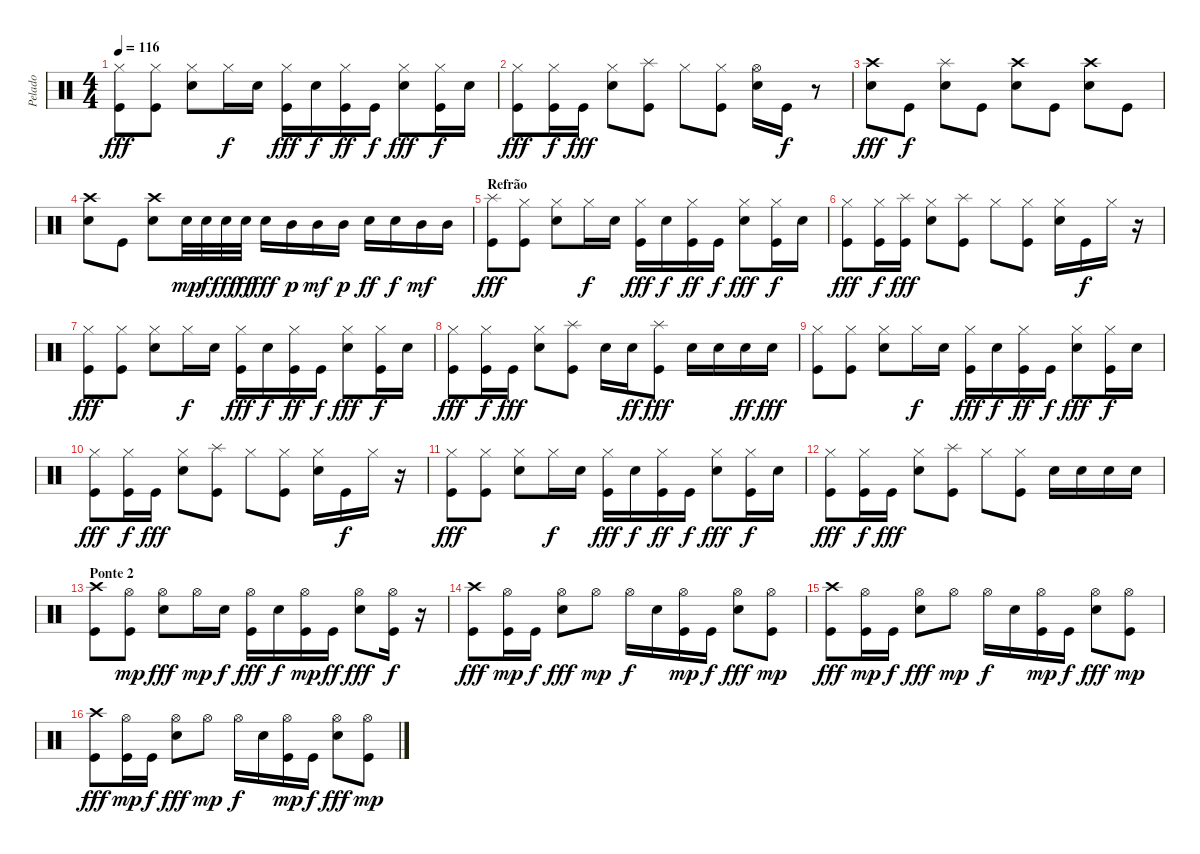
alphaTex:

\track ("Pelado" "Pelado") {instrument percussion}
\staff {score}
\articulation defaults
\ts (4 4)
\tempo 116
\clef neutral
\ks c
("Kick (hit)" "Hi-Hat (closed)").8{dy fff} ("Kick (hit)" "Hi-Hat (closed)").8 ("Electric Snare (hit)" "Hi-Hat (closed)").8 "Hi-Hat (closed)".16{dy f} "Electric Snare (hit)".16 ("Kick (hit)" "Hi-Hat (closed)").16{dy fff} "Electric Snare (hit)".16{dy f} ("Kick (hit)" "Hi-Hat (closed)").16{dy ff} "Kick (hit)".16{dy f} ("Electric Snare (hit)" "Hi-Hat (closed)").8{dy fff} ("Kick (hit)" "Hi-Hat (closed)").16{dy f} "Electric Snare (hit)".16 |
("Kick (hit)" "Hi-Hat (closed)").8{dy fff} ("Kick (hit)" "Hi-Hat (closed)").16{dy f} "Kick (hit)".16{dy fff} ("Electric Snare (hit)" "Hi-Hat (closed)").8 ("Kick (hit)" "Splash (hit)").8 "Hi-Hat (closed)".8 ("Kick (hit)" "Hi-Hat (closed)").8 ("Electric Snare (hit)" "Hi-Hat (open)").16 "Kick (hit)".16{dy f} r.8 |
("Electric Snare (hit)" "Crash high (hit)").8{dy fff} "Kick (hit)".8{dy f} ("Electric Snare (hit)" "Splash (hit)").8 "Kick (hit)".8 ("Electric Snare (hit)" "Crash high (hit)").8 "Kick (hit)".8 ("Electric Snare (hit)" "Crash high (hit)").8 "Kick (hit)".8 |
("Electric Snare (hit)" "Crash high (hit)").8 "Kick (hit)".8 ("Electric Snare (hit)" "Crash high (hit)").8 "Electric Snare (hit)".32{dy mp} "Electric Snare (hit)".32{dy f} "Electric Snare (hit)".32{dy fff} "Electric Snare (hit)".32{dy ff} "Electric Snare (hit)".16{dy fff} "Mid Tom (hit)".16{dy p} "Mid Tom (hit)".16{dy mf} "Mid Tom (hit)".16{dy p} "Electric Snare (hit)".16{dy ff} "Electric Snare (hit)".16{dy f} "Mid Tom (hit)".16{dy mf} "Mid Tom (hit)".16 |
\section ("" "Refrão")
("Kick (hit)" "Splash (hit)").8{dy fff} ("Kick (hit)" "Hi-Hat (closed)").8 ("Electric Snare (hit)" "Hi-Hat (closed)").8 "Hi-Hat (closed)".16{dy f} "Electric Snare (hit)".16 ("Kick (hit)" "Hi-Hat (closed)").16{dy fff} "Electric Snare (hit)".16{dy f} ("Kick (hit)" "Hi-Hat (closed)").16{dy ff} "Kick (hit)".16{dy f} ("Electric Snare (hit)" "Hi-Hat (closed)").8{dy fff} ("Kick (hit)" "Hi-Hat (closed)").16{dy f} "Electric Snare (hit)".16 |
("Kick (hit)" "Hi-Hat (closed)").8{dy fff} ("Kick (hit)" "Hi-Hat (closed)").16{dy f} ("Kick (hit)" "Splash (hit)").16{dy fff} ("Electric Snare (hit)" "Hi-Hat (closed)").8 ("Kick (hit)" "Splash (hit)").8 "Hi-Hat (closed)".8 ("Kick (hit)" "Hi-Hat (closed)").8 ("Electric Snare (hit)" "Hi-Hat (closed)").16 "Kick (hit)".16{dy f} "Hi-Hat (closed)".16 r.16 |
("Kick (hit)" "Hi-Hat (closed)").8{dy fff} ("Kick (hit)" "Hi-Hat (closed)").8 ("Electric Snare (hit)" "Hi-Hat (closed)").8 "Hi-Hat (closed)".16{dy f} "Electric Snare (hit)".16 ("Kick (hit)" "Hi-Hat (closed)").16{dy fff} "Electric Snare (hit)".16{dy f} ("Kick (hit)" "Hi-Hat (closed)").16{dy ff} "Kick (hit)".16{dy f} ("Electric Snare (hit)" "Hi-Hat (closed)").8{dy fff} ("Kick (hit)" "Hi-Hat (closed)").16{dy f} "Electric Snare (hit)".16 |
("Kick (hit)" "Hi-Hat (closed)").8{dy fff} ("Kick (hit)" "Hi-Hat (closed)").16{dy f} "Kick (hit)".16{dy fff} ("Electric Snare (hit)" "Hi-Hat (closed)").8 ("Kick (hit)" "Splash (hit)").8 "Electric Snare (hit)".16 "Electric Snare (hit)".16{dy ff} ("Kick (hit)" "Splash (hit)").8{dy fff} "Electric Snare (hit)".16 "Electric Snare (hit)".16 "Electric Snare (hit)".16{dy ff} "Electric Snare (hit)".16{dy fff} |
("Kick (hit)" "Hi-Hat (closed)").8 ("Kick (hit)" "Hi-Hat (closed)").8 ("Electric Snare (hit)" "Hi-Hat (closed)").8 "Hi-Hat (closed)".16{dy f} "Electric Snare (hit)".16 ("Kick (hit)" "Hi-Hat (closed)").16{dy fff} "Electric Snare (hit)".16{dy f} ("Kick (hit)" "Hi-Hat (closed)").16{dy ff} "Kick (hit)".16{dy f} ("Electric Snare (hit)" "Hi-Hat (closed)").8{dy fff} ("Kick (hit)" "Hi-Hat (closed)").16{dy f} "Electric Snare (hit)".16 |
("Kick (hit)" "Hi-Hat (closed)").8{dy fff} ("Kick (hit)" "Hi-Hat (closed)").16{dy f} "Kick (hit)".16{dy fff} ("Electric Snare (hit)" "Hi-Hat (closed)").8 ("Kick (hit)" "Splash (hit)").8 "Hi-Hat (closed)".8 ("Kick (hit)" "Hi-Hat (closed)").8 ("Electric Snare (hit)" "Hi-Hat (closed)").16 "Kick (hit)".16{dy f} "Hi-Hat (closed)".16 r.16 |
("Kick (hit)" "Hi-Hat (closed)").8{dy fff} ("Kick (hit)" "Hi-Hat (closed)").8 ("Electric Snare (hit)" "Hi-Hat (closed)").8 "Hi-Hat (closed)".16{dy f} "Electric Snare (hit)".16 ("Kick (hit)" "Hi-Hat (closed)").16{dy fff} "Electric Snare (hit)".16{dy f} ("Kick (hit)" "Hi-Hat (closed)").16{dy ff} "Kick (hit)".16{dy f} ("Electric Snare (hit)" "Hi-Hat (closed)").8{dy fff} ("Kick (hit)" "Hi-Hat (closed)").16{dy f} "Electric Snare (hit)".16 |
("Kick (hit)" "Hi-Hat (closed)").8{dy fff} ("Kick (hit)" "Hi-Hat (closed)").16{dy f} "Kick (hit)".16{dy fff} ("Electric Snare (hit)" "Hi-Hat (closed)").8 ("Kick (hit)" "Splash (hit)").8 "Hi-Hat (closed)".8 ("Kick (hit)" "Hi-Hat (closed)").8 "Electric Snare (hit)".16 "Electric Snare (hit)".16 "Electric Snare (hit)".16 "Electric Snare (hit)".16 |
\section ("" "Ponte 2")
("Kick (hit)" "Crash high (hit)").8 ("Kick (hit)" "Hi-Hat (open)").8{dy mp} ("Electric Snare (hit)" "Hi-Hat (open)").8{dy fff} "Hi-Hat (open)".16{dy mp} "Electric Snare (hit)".16{dy f} ("Kick (hit)" "Hi-Hat (open)").16{dy fff} "Electric Snare (hit)".16{dy f} ("Kick (hit)" "Hi-Hat (open)").16{dy mp} "Kick (hit)".16{dy ff} ("Electric Snare (hit)" "Hi-Hat (open)").8{dy fff} ("Kick (hit)" "Hi-Hat (open)").16{dy f} r.16 |
("Kick (hit)" "Crash high (hit)").8{dy fff} ("Kick (hit)" "Hi-Hat (open)").16{dy mp} "Kick (hit)".16{dy f} ("Electric Snare (hit)" "Hi-Hat (open)").8{dy fff} "Hi-Hat (open)".8{dy mp} "Hi-Hat (open)".16{dy f} "Electric Snare (hit)".16 ("Kick (hit)" "Hi-Hat (open)").16{dy mp} "Kick (hit)".16{dy f} ("Electric Snare (hit)" "Hi-Hat (open)").8{dy fff} ("Kick (hit)" "Hi-Hat (open)").8{dy mp} |
("Kick (hit)" "Crash high (hit)").8{dy fff} ("Kick (hit)" "Hi-Hat (open)").16{dy mp} "Kick (hit)".16{dy f} ("Electric Snare (hit)" "Hi-Hat (open)").8{dy fff} "Hi-Hat (open)".8{dy mp} "Hi-Hat (open)".16{dy f} "Electric Snare (hit)".16 ("Kick (hit)" "Hi-Hat (open)").16{dy mp} "Kick (hit)".16{dy f} ("Electric Snare (hit)" "Hi-Hat (open)").8{dy fff} ("Kick (hit)" "Hi-Hat (open)").8{dy mp} |
("Kick (hit)" "Crash high (hit)").8{dy fff} ("Kick (hit)" "Hi-Hat (open)").16{dy mp} "Kick (hit)".16{dy f} ("Electric Snare (hit)" "Hi-Hat (open)").8{dy fff} "Hi-Hat (open)".8{dy mp} "Hi-Hat (open)".16{dy f} "Electric Snare (hit)".16 ("Kick (hit)" "Hi-Hat (open)").16{dy mp} "Kick (hit)".16{dy f} ("Electric Snare (hit)" "Hi-Hat (open)").8{dy fff} ("Kick (hit)" "Hi-Hat (open)").8{dy mp}
